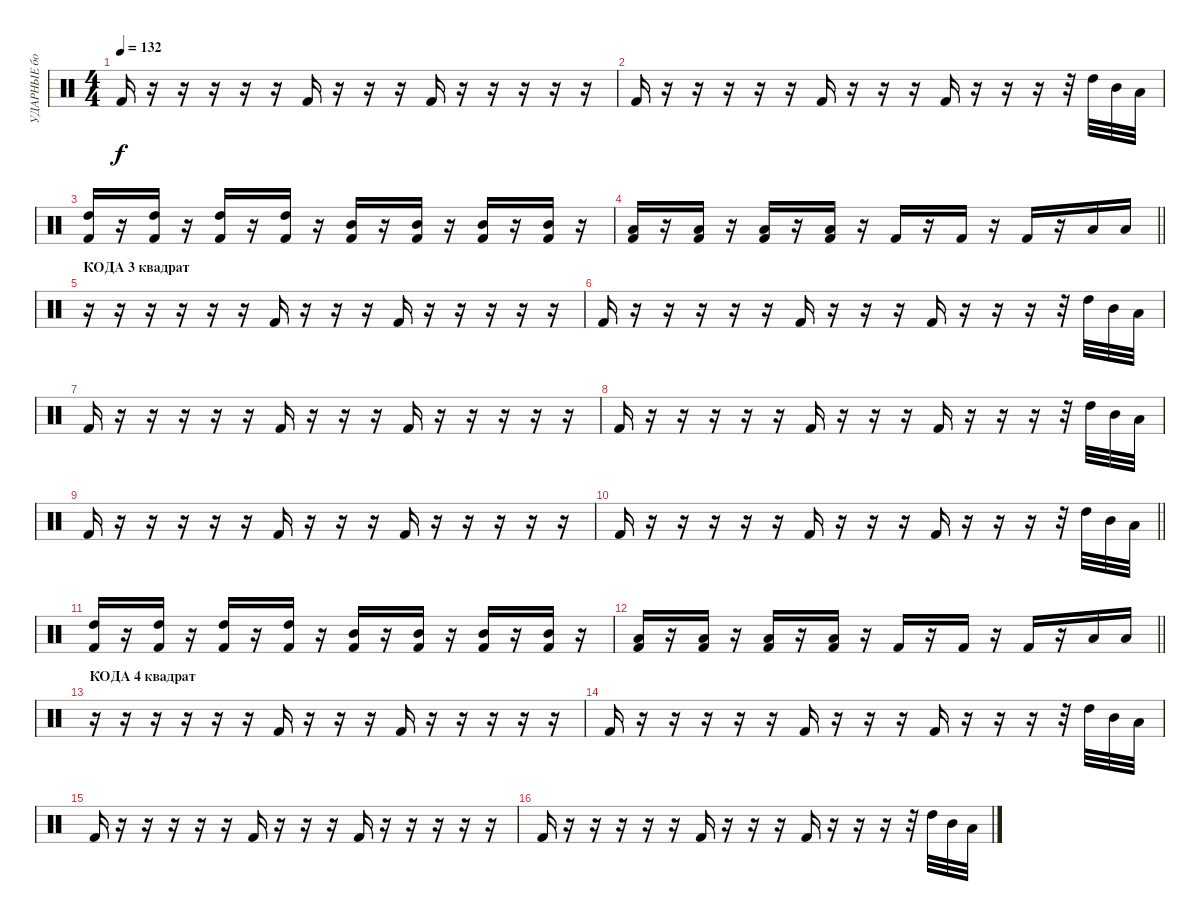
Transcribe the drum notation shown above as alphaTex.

\track ("УДАРНЫЕ бочка" "УДАРНЫЕ бо") {instrument percussion}
\staff {score}
\articulation defaults
\ts (4 4)
\tempo 132
\clef neutral
\ks c "Kick (hit) 2".16{dy f}
r.16 r.16 r.16 r.16 r.16 "Kick (hit) 2".16 r.16 r.16 r.16 "Kick (hit) 2".16 r.16 r.16 r.16 r.16 r.16 |
"Kick (hit) 2".16 r.16 r.16 r.16 r.16 r.16 "Kick (hit) 2".16 r.16 r.16 r.16 "Kick (hit) 2".16 r.16 r.16 r.16 r.32 "High Tom (hit)".32 "Mid Tom (hit)".32 "Low Tom (hit)".32 |
("Kick (hit) 2" "High Tom (hit)").16 r.16 ("Kick (hit) 2" "High Tom (hit)").16 r.16 ("Kick (hit) 2" "High Tom (hit)").16 r.16 ("Kick (hit) 2" "High Tom (hit)").16 r.16 ("Kick (hit) 2" "Mid Tom (hit)").16 r.16 ("Kick (hit) 2" "Mid Tom (hit)").16 r.16 ("Kick (hit) 2" "Mid Tom (hit)").16 r.16 ("Kick (hit) 2" "Mid Tom (hit)").16 r.16 |
\barLineRight lightlight
("Kick (hit) 2" "Low Tom (hit)").16 r.16 ("Kick (hit) 2" "Low Tom (hit)").16 r.16 ("Kick (hit) 2" "Low Tom (hit)").16 r.16 ("Kick (hit) 2" "Low Tom (hit)").16 r.16 "Kick (hit) 2".16 r.16 "Kick (hit) 2".16 r.16 "Kick (hit) 2".16 r.16 "Low Tom (hit)".16 "Low Tom (hit)".16 |
\section ("" "КОДА 3 квадрат")
r.16 r.16 r.16 r.16 r.16 r.16 "Kick (hit) 2".16 r.16 r.16 r.16 "Kick (hit) 2".16 r.16 r.16 r.16 r.16 r.16 |
"Kick (hit) 2".16 r.16 r.16 r.16 r.16 r.16 "Kick (hit) 2".16 r.16 r.16 r.16 "Kick (hit) 2".16 r.16 r.16 r.16 r.32 "High Tom (hit)".32 "Mid Tom (hit)".32 "Low Tom (hit)".32 |
"Kick (hit) 2".16 r.16 r.16 r.16 r.16 r.16 "Kick (hit) 2".16 r.16 r.16 r.16 "Kick (hit) 2".16 r.16 r.16 r.16 r.16 r.16 |
"Kick (hit) 2".16 r.16 r.16 r.16 r.16 r.16 "Kick (hit) 2".16 r.16 r.16 r.16 "Kick (hit) 2".16 r.16 r.16 r.16 r.32 "High Tom (hit)".32 "Mid Tom (hit)".32 "Low Tom (hit)".32 |
"Kick (hit) 2".16 r.16 r.16 r.16 r.16 r.16 "Kick (hit) 2".16 r.16 r.16 r.16 "Kick (hit) 2".16 r.16 r.16 r.16 r.16 r.16 |
\barLineRight lightlight "Kick (hit) 2".16
r.16 r.16 r.16 r.16 r.16 "Kick (hit) 2".16 r.16 r.16 r.16 "Kick (hit) 2".16 r.16 r.16 r.16 r.32 "High Tom (hit)".32 "Mid Tom (hit)".32 "Low Tom (hit)".32 |
("Kick (hit) 2" "High Tom (hit)").16 r.16 ("Kick (hit) 2" "High Tom (hit)").16 r.16 ("Kick (hit) 2" "High Tom (hit)").16 r.16 ("Kick (hit) 2" "High Tom (hit)").16 r.16 ("Kick (hit) 2" "Mid Tom (hit)").16 r.16 ("Kick (hit) 2" "Mid Tom (hit)").16 r.16 ("Kick (hit) 2" "Mid Tom (hit)").16 r.16 ("Kick (hit) 2" "Mid Tom (hit)").16 r.16 |
\barLineRight lightlight
("Kick (hit) 2" "Low Tom (hit)").16 r.16 ("Kick (hit) 2" "Low Tom (hit)").16 r.16 ("Kick (hit) 2" "Low Tom (hit)").16 r.16 ("Kick (hit) 2" "Low Tom (hit)").16 r.16 "Kick (hit) 2".16 r.16 "Kick (hit) 2".16 r.16 "Kick (hit) 2".16 r.16 "Low Tom (hit)".16 "Low Tom (hit)".16 |
\section ("" "КОДА 4 квадрат")
r.16 r.16 r.16 r.16 r.16 r.16 "Kick (hit) 2".16 r.16 r.16 r.16 "Kick (hit) 2".16 r.16 r.16 r.16 r.16 r.16 |
"Kick (hit) 2".16 r.16 r.16 r.16 r.16 r.16 "Kick (hit) 2".16 r.16 r.16 r.16 "Kick (hit) 2".16 r.16 r.16 r.16 r.32 "High Tom (hit)".32 "Mid Tom (hit)".32 "Low Tom (hit)".32 |
"Kick (hit) 2".16 r.16 r.16 r.16 r.16 r.16 "Kick (hit) 2".16 r.16 r.16 r.16 "Kick (hit) 2".16 r.16 r.16 r.16 r.16 r.16 |
"Kick (hit) 2".16 r.16 r.16 r.16 r.16 r.16 "Kick (hit) 2".16 r.16 r.16 r.16 "Kick (hit) 2".16 r.16 r.16 r.16 r.32 "High Tom (hit)".32 "Mid Tom (hit)".32 "Low Tom (hit)".32
